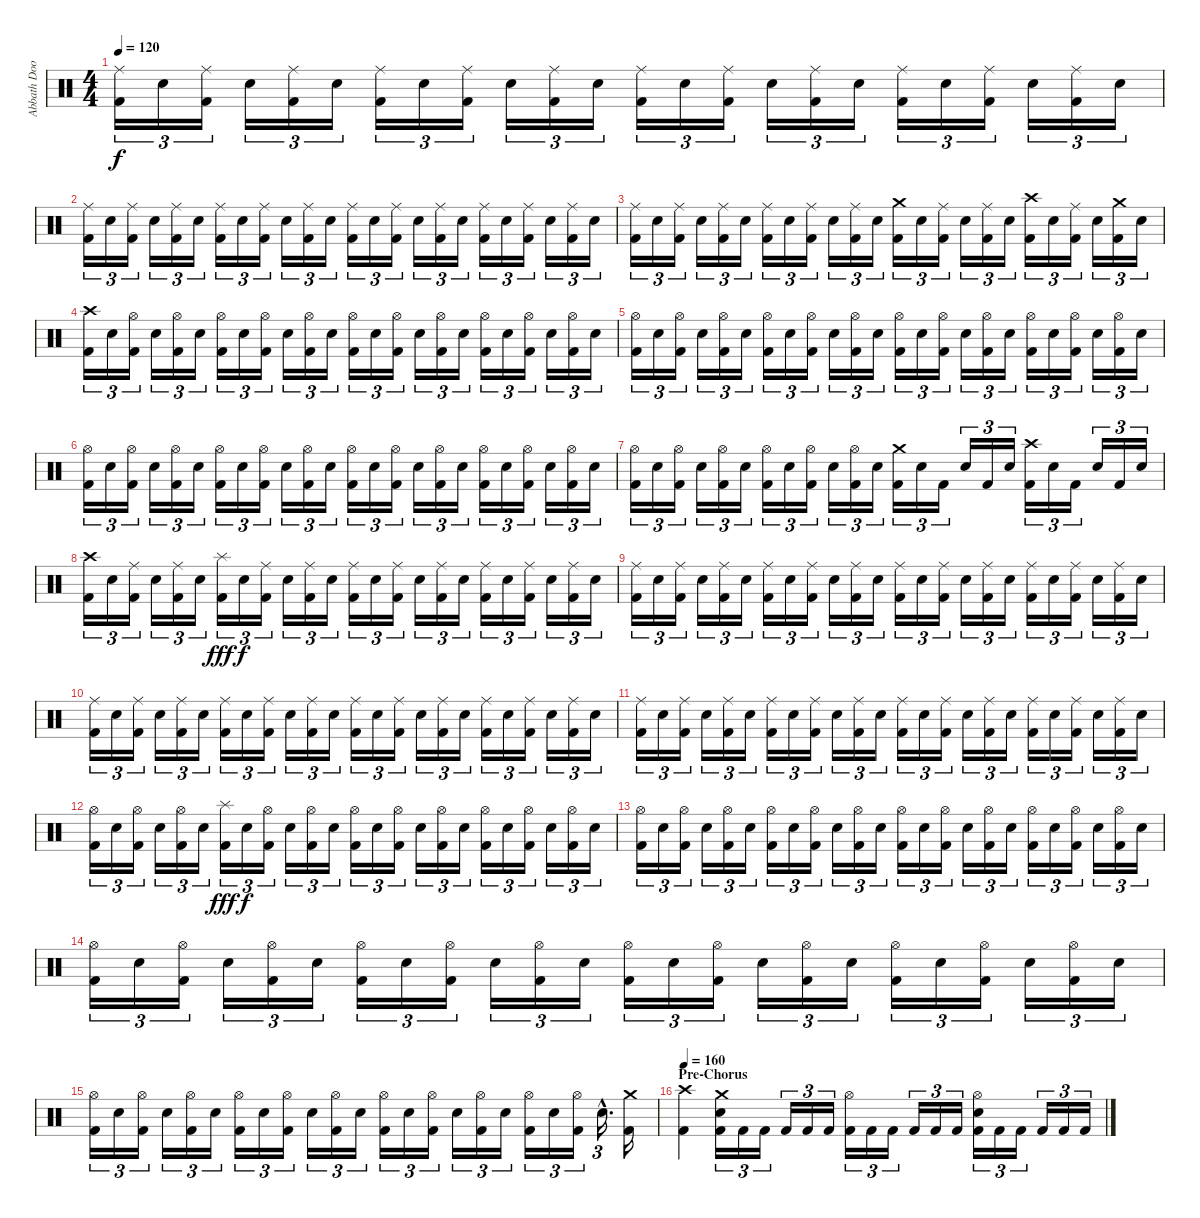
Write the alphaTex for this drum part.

\track ("Abbath Doom Occulta" "Abbath Doo") {instrument percussion}
\staff {score}
\articulation defaults
\ts (4 4)
\tempo 120
\clef neutral
\ks c
("Ride (middle)" "Kick (hit) 2").16{tu (3 2) dy f} "Electric Snare (hit)".16{tu (3 2)} ("Ride (middle)" "Kick (hit) 2").16{tu (3 2)} "Electric Snare (hit)".16{tu (3 2)} ("Ride (middle)" "Kick (hit) 2").16{tu (3 2)} "Electric Snare (hit)".16{tu (3 2)} ("Ride (middle)" "Kick (hit) 2").16{tu (3 2)} "Electric Snare (hit)".16{tu (3 2)} ("Ride (middle)" "Kick (hit) 2").16{tu (3 2)} "Electric Snare (hit)".16{tu (3 2)} ("Ride (middle)" "Kick (hit) 2").16{tu (3 2)} "Electric Snare (hit)".16{tu (3 2)} ("Ride (middle)" "Kick (hit) 2").16{tu (3 2)} "Electric Snare (hit)".16{tu (3 2)} ("Ride (middle)" "Kick (hit) 2").16{tu (3 2)} "Electric Snare (hit)".16{tu (3 2)} ("Ride (middle)" "Kick (hit) 2").16{tu (3 2)} "Electric Snare (hit)".16{tu (3 2)} ("Ride (middle)" "Kick (hit) 2").16{tu (3 2)} "Electric Snare (hit)".16{tu (3 2)} ("Ride (middle)" "Kick (hit) 2").16{tu (3 2)} "Electric Snare (hit)".16{tu (3 2)} ("Ride (middle)" "Kick (hit) 2").16{tu (3 2)} "Electric Snare (hit)".16{tu (3 2)} |
("Ride (middle)" "Kick (hit) 2").16{tu (3 2)} "Electric Snare (hit)".16{tu (3 2)} ("Ride (middle)" "Kick (hit) 2").16{tu (3 2)} "Electric Snare (hit)".16{tu (3 2)} ("Ride (middle)" "Kick (hit) 2").16{tu (3 2)} "Electric Snare (hit)".16{tu (3 2)} ("Ride (middle)" "Kick (hit) 2").16{tu (3 2)} "Electric Snare (hit)".16{tu (3 2)} ("Ride (middle)" "Kick (hit) 2").16{tu (3 2)} "Electric Snare (hit)".16{tu (3 2)} ("Ride (middle)" "Kick (hit) 2").16{tu (3 2)} "Electric Snare (hit)".16{tu (3 2)} ("Ride (middle)" "Kick (hit) 2").16{tu (3 2)} "Electric Snare (hit)".16{tu (3 2)} ("Ride (middle)" "Kick (hit) 2").16{tu (3 2)} "Electric Snare (hit)".16{tu (3 2)} ("Ride (middle)" "Kick (hit) 2").16{tu (3 2)} "Electric Snare (hit)".16{tu (3 2)} ("Ride (middle)" "Kick (hit) 2").16{tu (3 2)} "Electric Snare (hit)".16{tu (3 2)} ("Ride (middle)" "Kick (hit) 2").16{tu (3 2)} "Electric Snare (hit)".16{tu (3 2)} ("Ride (middle)" "Kick (hit) 2").16{tu (3 2)} "Electric Snare (hit)".16{tu (3 2)} |
("Ride (middle)" "Kick (hit) 2").16{tu (3 2)} "Electric Snare (hit)".16{tu (3 2)} ("Ride (middle)" "Kick (hit) 2").16{tu (3 2)} "Electric Snare (hit)".16{tu (3 2)} ("Ride (middle)" "Kick (hit) 2").16{tu (3 2)} "Electric Snare (hit)".16{tu (3 2)} ("Ride (middle)" "Kick (hit) 2").16{tu (3 2)} "Electric Snare (hit)".16{tu (3 2)} ("Ride (middle)" "Kick (hit) 2").16{tu (3 2)} "Electric Snare (hit)".16{tu (3 2)} ("Ride (middle)" "Kick (hit) 2").16{tu (3 2)} "Electric Snare (hit)".16{tu (3 2)} ("Crash medium (hit)" "Kick (hit) 2").16{tu (3 2)} "Electric Snare (hit)".16{tu (3 2)} ("Ride (middle)" "Kick (hit) 2").16{tu (3 2)} "Electric Snare (hit)".16{tu (3 2)} ("Ride (middle)" "Kick (hit) 2").16{tu (3 2)} "Electric Snare (hit)".16{tu (3 2)} ("Crash high (hit)" "Kick (hit) 2").16{tu (3 2)} "Electric Snare (hit)".16{tu (3 2)} ("Ride (middle)" "Kick (hit) 2").16{tu (3 2)} "Electric Snare (hit)".16{tu (3 2)} ("Crash medium (hit)" "Kick (hit) 2").16{tu (3 2)} "Electric Snare (hit)".16{tu (3 2)} |
("Crash high (hit)" "Kick (hit) 2").16{tu (3 2)} "Electric Snare (hit)".16{tu (3 2)} ("Hi-Hat (open)" "Kick (hit) 2").16{tu (3 2)} "Electric Snare (hit)".16{tu (3 2)} ("Hi-Hat (open)" "Kick (hit) 2").16{tu (3 2)} "Electric Snare (hit)".16{tu (3 2)} ("Hi-Hat (open)" "Kick (hit) 2").16{tu (3 2)} "Electric Snare (hit)".16{tu (3 2)} ("Hi-Hat (open)" "Kick (hit) 2").16{tu (3 2)} "Electric Snare (hit)".16{tu (3 2)} ("Hi-Hat (open)" "Kick (hit) 2").16{tu (3 2)} "Electric Snare (hit)".16{tu (3 2)} ("Hi-Hat (open)" "Kick (hit) 2").16{tu (3 2)} "Electric Snare (hit)".16{tu (3 2)} ("Hi-Hat (open)" "Kick (hit) 2").16{tu (3 2)} "Electric Snare (hit)".16{tu (3 2)} ("Hi-Hat (open)" "Kick (hit) 2").16{tu (3 2)} "Electric Snare (hit)".16{tu (3 2)} ("Hi-Hat (open)" "Kick (hit) 2").16{tu (3 2)} "Electric Snare (hit)".16{tu (3 2)} ("Hi-Hat (open)" "Kick (hit) 2").16{tu (3 2)} "Electric Snare (hit)".16{tu (3 2)} ("Hi-Hat (open)" "Kick (hit) 2").16{tu (3 2)} "Electric Snare (hit)".16{tu (3 2)} |
("Hi-Hat (open)" "Kick (hit) 2").16{tu (3 2)} "Electric Snare (hit)".16{tu (3 2)} ("Hi-Hat (open)" "Kick (hit) 2").16{tu (3 2)} "Electric Snare (hit)".16{tu (3 2)} ("Hi-Hat (open)" "Kick (hit) 2").16{tu (3 2)} "Electric Snare (hit)".16{tu (3 2)} ("Hi-Hat (open)" "Kick (hit) 2").16{tu (3 2)} "Electric Snare (hit)".16{tu (3 2)} ("Hi-Hat (open)" "Kick (hit) 2").16{tu (3 2)} "Electric Snare (hit)".16{tu (3 2)} ("Hi-Hat (open)" "Kick (hit) 2").16{tu (3 2)} "Electric Snare (hit)".16{tu (3 2)} ("Hi-Hat (open)" "Kick (hit) 2").16{tu (3 2)} "Electric Snare (hit)".16{tu (3 2)} ("Hi-Hat (open)" "Kick (hit) 2").16{tu (3 2)} "Electric Snare (hit)".16{tu (3 2)} ("Hi-Hat (open)" "Kick (hit) 2").16{tu (3 2)} "Electric Snare (hit)".16{tu (3 2)} ("Hi-Hat (open)" "Kick (hit) 2").16{tu (3 2)} "Electric Snare (hit)".16{tu (3 2)} ("Hi-Hat (open)" "Kick (hit) 2").16{tu (3 2)} "Electric Snare (hit)".16{tu (3 2)} ("Hi-Hat (open)" "Kick (hit) 2").16{tu (3 2)} "Electric Snare (hit)".16{tu (3 2)} |
("Hi-Hat (open)" "Kick (hit) 2").16{tu (3 2)} "Electric Snare (hit)".16{tu (3 2)} ("Hi-Hat (open)" "Kick (hit) 2").16{tu (3 2)} "Electric Snare (hit)".16{tu (3 2)} ("Hi-Hat (open)" "Kick (hit) 2").16{tu (3 2)} "Electric Snare (hit)".16{tu (3 2)} ("Hi-Hat (open)" "Kick (hit) 2").16{tu (3 2)} "Electric Snare (hit)".16{tu (3 2)} ("Hi-Hat (open)" "Kick (hit) 2").16{tu (3 2)} "Electric Snare (hit)".16{tu (3 2)} ("Hi-Hat (open)" "Kick (hit) 2").16{tu (3 2)} "Electric Snare (hit)".16{tu (3 2)} ("Hi-Hat (open)" "Kick (hit) 2").16{tu (3 2)} "Electric Snare (hit)".16{tu (3 2)} ("Hi-Hat (open)" "Kick (hit) 2").16{tu (3 2)} "Electric Snare (hit)".16{tu (3 2)} ("Hi-Hat (open)" "Kick (hit) 2").16{tu (3 2)} "Electric Snare (hit)".16{tu (3 2)} ("Hi-Hat (open)" "Kick (hit) 2").16{tu (3 2)} "Electric Snare (hit)".16{tu (3 2)} ("Hi-Hat (open)" "Kick (hit) 2").16{tu (3 2)} "Electric Snare (hit)".16{tu (3 2)} ("Hi-Hat (open)" "Kick (hit) 2").16{tu (3 2)} "Electric Snare (hit)".16{tu (3 2)} |
("Hi-Hat (open)" "Kick (hit) 2").16{tu (3 2)} "Electric Snare (hit)".16{tu (3 2)} ("Hi-Hat (open)" "Kick (hit) 2").16{tu (3 2)} "Electric Snare (hit)".16{tu (3 2)} ("Hi-Hat (open)" "Kick (hit) 2").16{tu (3 2)} "Electric Snare (hit)".16{tu (3 2)} ("Hi-Hat (open)" "Kick (hit) 2").16{tu (3 2)} "Electric Snare (hit)".16{tu (3 2)} ("Hi-Hat (open)" "Kick (hit) 2").16{tu (3 2)} "Electric Snare (hit)".16{tu (3 2)} ("Hi-Hat (open)" "Kick (hit) 2").16{tu (3 2)} "Electric Snare (hit)".16{tu (3 2)} ("Crash medium (hit)" "Kick (hit) 2").16{tu (3 2)} "Electric Snare (hit)".16{tu (3 2)} "Kick (hit) 2".16{tu (3 2)} "Electric Snare (hit)".16{tu (3 2)} "Kick (hit) 2".16{tu (3 2)} "Electric Snare (hit)".16{tu (3 2)} ("Crash high (hit)" "Kick (hit) 2").16{tu (3 2)} "Electric Snare (hit)".16{tu (3 2)} "Kick (hit) 2".16{tu (3 2)} "Electric Snare (hit)".16{tu (3 2)} "Kick (hit) 2".16{tu (3 2)} "Electric Snare (hit)".16{tu (3 2)} |
("Crash high (hit)" "Kick (hit) 2").16{tu (3 2)} "Electric Snare (hit)".16{tu (3 2)} ("Ride (middle)" "Kick (hit) 2").16{tu (3 2)} "Electric Snare (hit)".16{tu (3 2)} ("Ride (middle)" "Kick (hit) 2").16{tu (3 2)} "Electric Snare (hit)".16{tu (3 2)} ("Splash (hit)" "Kick (hit) 2").16{tu (3 2) dy fff} "Electric Snare (hit)".16{tu (3 2) dy f} ("Ride (middle)" "Kick (hit) 2").16{tu (3 2)} "Electric Snare (hit)".16{tu (3 2)} ("Ride (middle)" "Kick (hit) 2").16{tu (3 2)} "Electric Snare (hit)".16{tu (3 2)} ("Ride (middle)" "Kick (hit) 2").16{tu (3 2)} "Electric Snare (hit)".16{tu (3 2)} ("Ride (middle)" "Kick (hit) 2").16{tu (3 2)} "Electric Snare (hit)".16{tu (3 2)} ("Ride (middle)" "Kick (hit) 2").16{tu (3 2)} "Electric Snare (hit)".16{tu (3 2)} ("Ride (middle)" "Kick (hit) 2").16{tu (3 2)} "Electric Snare (hit)".16{tu (3 2)} ("Ride (middle)" "Kick (hit) 2").16{tu (3 2)} "Electric Snare (hit)".16{tu (3 2)} ("Ride (middle)" "Kick (hit) 2").16{tu (3 2)} "Electric Snare (hit)".16{tu (3 2)} |
("Ride (middle)" "Kick (hit) 2").16{tu (3 2)} "Electric Snare (hit)".16{tu (3 2)} ("Ride (middle)" "Kick (hit) 2").16{tu (3 2)} "Electric Snare (hit)".16{tu (3 2)} ("Ride (middle)" "Kick (hit) 2").16{tu (3 2)} "Electric Snare (hit)".16{tu (3 2)} ("Ride (middle)" "Kick (hit) 2").16{tu (3 2)} "Electric Snare (hit)".16{tu (3 2)} ("Ride (middle)" "Kick (hit) 2").16{tu (3 2)} "Electric Snare (hit)".16{tu (3 2)} ("Ride (middle)" "Kick (hit) 2").16{tu (3 2)} "Electric Snare (hit)".16{tu (3 2)} ("Ride (middle)" "Kick (hit) 2").16{tu (3 2)} "Electric Snare (hit)".16{tu (3 2)} ("Ride (middle)" "Kick (hit) 2").16{tu (3 2)} "Electric Snare (hit)".16{tu (3 2)} ("Ride (middle)" "Kick (hit) 2").16{tu (3 2)} "Electric Snare (hit)".16{tu (3 2)} ("Ride (middle)" "Kick (hit) 2").16{tu (3 2)} "Electric Snare (hit)".16{tu (3 2)} ("Ride (middle)" "Kick (hit) 2").16{tu (3 2)} "Electric Snare (hit)".16{tu (3 2)} ("Ride (middle)" "Kick (hit) 2").16{tu (3 2)} "Electric Snare (hit)".16{tu (3 2)} |
("Ride (middle)" "Kick (hit) 2").16{tu (3 2)} "Electric Snare (hit)".16{tu (3 2)} ("Ride (middle)" "Kick (hit) 2").16{tu (3 2)} "Electric Snare (hit)".16{tu (3 2)} ("Ride (middle)" "Kick (hit) 2").16{tu (3 2)} "Electric Snare (hit)".16{tu (3 2)} ("Ride (middle)" "Kick (hit) 2").16{tu (3 2)} "Electric Snare (hit)".16{tu (3 2)} ("Ride (middle)" "Kick (hit) 2").16{tu (3 2)} "Electric Snare (hit)".16{tu (3 2)} ("Ride (middle)" "Kick (hit) 2").16{tu (3 2)} "Electric Snare (hit)".16{tu (3 2)} ("Ride (middle)" "Kick (hit) 2").16{tu (3 2)} "Electric Snare (hit)".16{tu (3 2)} ("Ride (middle)" "Kick (hit) 2").16{tu (3 2)} "Electric Snare (hit)".16{tu (3 2)} ("Ride (middle)" "Kick (hit) 2").16{tu (3 2)} "Electric Snare (hit)".16{tu (3 2)} ("Ride (middle)" "Kick (hit) 2").16{tu (3 2)} "Electric Snare (hit)".16{tu (3 2)} ("Ride (middle)" "Kick (hit) 2").16{tu (3 2)} "Electric Snare (hit)".16{tu (3 2)} ("Ride (middle)" "Kick (hit) 2").16{tu (3 2)} "Electric Snare (hit)".16{tu (3 2)} |
("Ride (middle)" "Kick (hit) 2").16{tu (3 2)} "Electric Snare (hit)".16{tu (3 2)} ("Ride (middle)" "Kick (hit) 2").16{tu (3 2)} "Electric Snare (hit)".16{tu (3 2)} ("Ride (middle)" "Kick (hit) 2").16{tu (3 2)} "Electric Snare (hit)".16{tu (3 2)} ("Ride (middle)" "Kick (hit) 2").16{tu (3 2)} "Electric Snare (hit)".16{tu (3 2)} ("Ride (middle)" "Kick (hit) 2").16{tu (3 2)} "Electric Snare (hit)".16{tu (3 2)} ("Ride (middle)" "Kick (hit) 2").16{tu (3 2)} "Electric Snare (hit)".16{tu (3 2)} ("Ride (middle)" "Kick (hit) 2").16{tu (3 2)} "Electric Snare (hit)".16{tu (3 2)} ("Ride (middle)" "Kick (hit) 2").16{tu (3 2)} "Electric Snare (hit)".16{tu (3 2)} ("Ride (middle)" "Kick (hit) 2").16{tu (3 2)} "Electric Snare (hit)".16{tu (3 2)} ("Ride (middle)" "Kick (hit) 2").16{tu (3 2)} "Electric Snare (hit)".16{tu (3 2)} ("Ride (middle)" "Kick (hit) 2").16{tu (3 2)} "Electric Snare (hit)".16{tu (3 2)} ("Ride (middle)" "Kick (hit) 2").16{tu (3 2)} "Electric Snare (hit)".16{tu (3 2)} |
("Hi-Hat (open)" "Kick (hit) 2").16{tu (3 2)} "Electric Snare (hit)".16{tu (3 2)} ("Hi-Hat (open)" "Kick (hit) 2").16{tu (3 2)} "Electric Snare (hit)".16{tu (3 2)} ("Hi-Hat (open)" "Kick (hit) 2").16{tu (3 2)} "Electric Snare (hit)".16{tu (3 2)} ("Splash (hit)" "Kick (hit) 2").16{tu (3 2) dy fff} "Electric Snare (hit)".16{tu (3 2) dy f} ("Hi-Hat (open)" "Kick (hit) 2").16{tu (3 2)} "Electric Snare (hit)".16{tu (3 2)} ("Hi-Hat (open)" "Kick (hit) 2").16{tu (3 2)} "Electric Snare (hit)".16{tu (3 2)} ("Hi-Hat (open)" "Kick (hit) 2").16{tu (3 2)} "Electric Snare (hit)".16{tu (3 2)} ("Hi-Hat (open)" "Kick (hit) 2").16{tu (3 2)} "Electric Snare (hit)".16{tu (3 2)} ("Hi-Hat (open)" "Kick (hit) 2").16{tu (3 2)} "Electric Snare (hit)".16{tu (3 2)} ("Hi-Hat (open)" "Kick (hit) 2").16{tu (3 2)} "Electric Snare (hit)".16{tu (3 2)} ("Hi-Hat (open)" "Kick (hit) 2").16{tu (3 2)} "Electric Snare (hit)".16{tu (3 2)} ("Hi-Hat (open)" "Kick (hit) 2").16{tu (3 2)} "Electric Snare (hit)".16{tu (3 2)} |
("Hi-Hat (open)" "Kick (hit) 2").16{tu (3 2)} "Electric Snare (hit)".16{tu (3 2)} ("Hi-Hat (open)" "Kick (hit) 2").16{tu (3 2)} "Electric Snare (hit)".16{tu (3 2)} ("Hi-Hat (open)" "Kick (hit) 2").16{tu (3 2)} "Electric Snare (hit)".16{tu (3 2)} ("Hi-Hat (open)" "Kick (hit) 2").16{tu (3 2)} "Electric Snare (hit)".16{tu (3 2)} ("Hi-Hat (open)" "Kick (hit) 2").16{tu (3 2)} "Electric Snare (hit)".16{tu (3 2)} ("Hi-Hat (open)" "Kick (hit) 2").16{tu (3 2)} "Electric Snare (hit)".16{tu (3 2)} ("Hi-Hat (open)" "Kick (hit) 2").16{tu (3 2)} "Electric Snare (hit)".16{tu (3 2)} ("Hi-Hat (open)" "Kick (hit) 2").16{tu (3 2)} "Electric Snare (hit)".16{tu (3 2)} ("Hi-Hat (open)" "Kick (hit) 2").16{tu (3 2)} "Electric Snare (hit)".16{tu (3 2)} ("Hi-Hat (open)" "Kick (hit) 2").16{tu (3 2)} "Electric Snare (hit)".16{tu (3 2)} ("Hi-Hat (open)" "Kick (hit) 2").16{tu (3 2)} "Electric Snare (hit)".16{tu (3 2)} ("Hi-Hat (open)" "Kick (hit) 2").16{tu (3 2)} "Electric Snare (hit)".16{tu (3 2)} |
("Hi-Hat (open)" "Kick (hit) 2").16{tu (3 2)} "Electric Snare (hit)".16{tu (3 2)} ("Hi-Hat (open)" "Kick (hit) 2").16{tu (3 2)} "Electric Snare (hit)".16{tu (3 2)} ("Hi-Hat (open)" "Kick (hit) 2").16{tu (3 2)} "Electric Snare (hit)".16{tu (3 2)} ("Hi-Hat (open)" "Kick (hit) 2").16{tu (3 2)} "Electric Snare (hit)".16{tu (3 2)} ("Hi-Hat (open)" "Kick (hit) 2").16{tu (3 2)} "Electric Snare (hit)".16{tu (3 2)} ("Hi-Hat (open)" "Kick (hit) 2").16{tu (3 2)} "Electric Snare (hit)".16{tu (3 2)} ("Hi-Hat (open)" "Kick (hit) 2").16{tu (3 2)} "Electric Snare (hit)".16{tu (3 2)} ("Hi-Hat (open)" "Kick (hit) 2").16{tu (3 2)} "Electric Snare (hit)".16{tu (3 2)} ("Hi-Hat (open)" "Kick (hit) 2").16{tu (3 2)} "Electric Snare (hit)".16{tu (3 2)} ("Hi-Hat (open)" "Kick (hit) 2").16{tu (3 2)} "Electric Snare (hit)".16{tu (3 2)} ("Hi-Hat (open)" "Kick (hit) 2").16{tu (3 2)} "Electric Snare (hit)".16{tu (3 2)} ("Hi-Hat (open)" "Kick (hit) 2").16{tu (3 2)} "Electric Snare (hit)".16{tu (3 2)} |
("Hi-Hat (open)" "Kick (hit) 2").16{tu (3 2)} "Electric Snare (hit)".16{tu (3 2)} ("Hi-Hat (open)" "Kick (hit) 2").16{tu (3 2)} "Electric Snare (hit)".16{tu (3 2)} ("Hi-Hat (open)" "Kick (hit) 2").16{tu (3 2)} "Electric Snare (hit)".16{tu (3 2)} ("Hi-Hat (open)" "Kick (hit) 2").16{tu (3 2)} "Electric Snare (hit)".16{tu (3 2)} ("Hi-Hat (open)" "Kick (hit) 2").16{tu (3 2)} "Electric Snare (hit)".16{tu (3 2)} ("Hi-Hat (open)" "Kick (hit) 2").16{tu (3 2)} "Electric Snare (hit)".16{tu (3 2)} ("Hi-Hat (open)" "Kick (hit) 2").16{tu (3 2)} "Electric Snare (hit)".16{tu (3 2)} ("Hi-Hat (open)" "Kick (hit) 2").16{tu (3 2)} "Electric Snare (hit)".16{tu (3 2)} ("Hi-Hat (open)" "Kick (hit) 2").16{tu (3 2)} "Electric Snare (hit)".16{tu (3 2)} ("Hi-Hat (open)" "Kick (hit) 2").16{tu (3 2)} "Electric Snare (hit)".16{tu (3 2)} ("Hi-Hat (open)" "Kick (hit) 2").16{tu (3 2)} "Electric Snare (hit)"{hac}.16{d tu (3 2)} ("Crash medium (hit)" "Kick (hit) 2").16 |
\section ("" "Pre-Chorus")
\tempo 160
("Crash high (hit)" "Kick (hit) 2").4 ("Crash medium (hit)" "Electric Snare (hit)" "Kick (hit) 2").16{tu (3 2)} "Kick (hit) 2".16{tu (3 2)} "Kick (hit) 2".16{tu (3 2)} "Kick (hit) 2".16{tu (3 2)} "Kick (hit) 2".16{tu (3 2)} "Kick (hit) 2".16{tu (3 2)} ("Hi-Hat (open)" "Kick (hit) 2").16{tu (3 2)} "Kick (hit) 2".16{tu (3 2)} "Kick (hit) 2".16{tu (3 2)} "Kick (hit) 2".16{tu (3 2)} "Kick (hit) 2".16{tu (3 2)} "Kick (hit) 2".16{tu (3 2)} ("Hi-Hat (open)" "Electric Snare (hit)" "Kick (hit) 2").16{tu (3 2)} "Kick (hit) 2".16{tu (3 2)} "Kick (hit) 2".16{tu (3 2)} "Kick (hit) 2".16{tu (3 2)} "Kick (hit) 2".16{tu (3 2)} "Kick (hit) 2".16{tu (3 2)}
